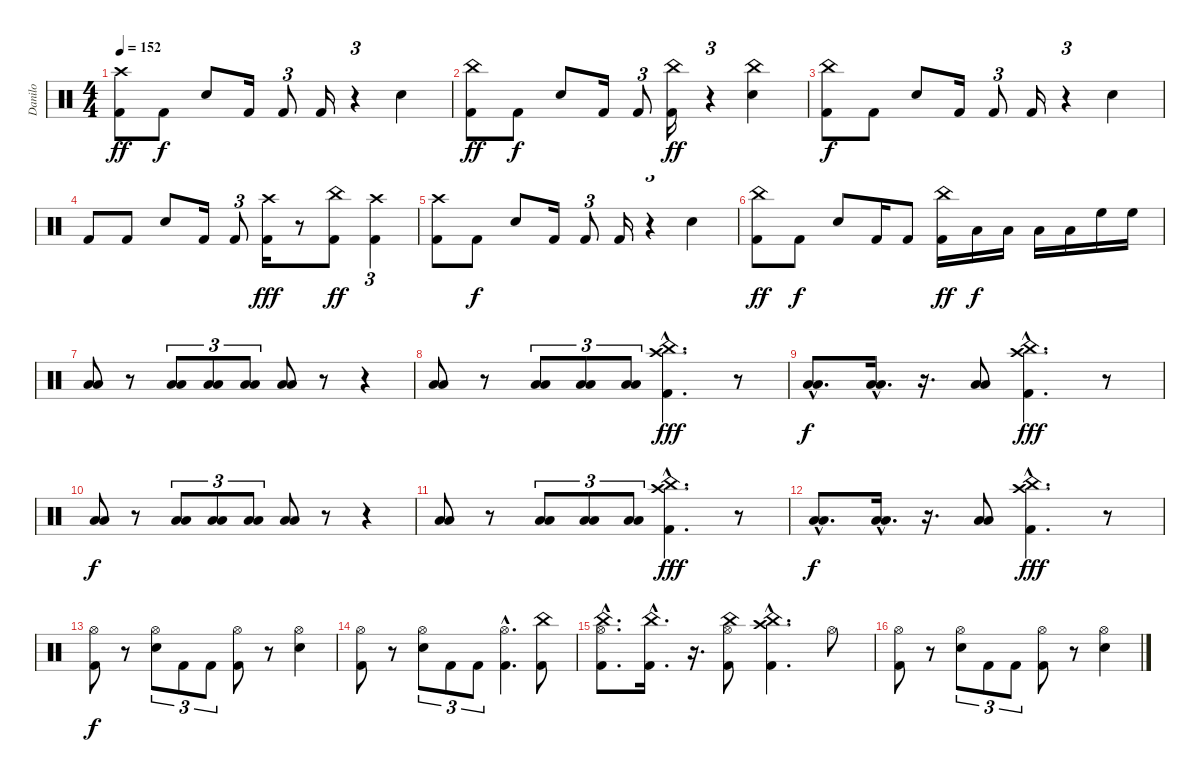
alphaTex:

\track ("Danilo" "Danilo") {instrument percussion}
\staff {score}
\articulation defaults
\ts (4 4)
\tempo 152
\clef neutral
\ks c
("Crash high (hit)" "Kick (hit) 2").8{dy ff} "Kick (hit) 2".8{dy f} "Snare (hit) 2".8 "Kick (hit) 2".16 "Kick (hit) 2".8{tu (3 2)} "Kick (hit) 2".16 r.4{tu (3 2)} "Snare (hit) 2".4 |
("China (hit)" "Kick (hit) 2").8{dy ff} "Kick (hit) 2".8{dy f} "Snare (hit) 2".8 "Kick (hit) 2".16 "Kick (hit) 2".8{tu (3 2)} ("China (hit)" "Kick (hit) 2").16{dy ff} r.4{tu (3 2)} ("Snare (hit) 2" "China (hit)").4 |
("China (hit)" "Kick (hit) 2").8{dy f} "Kick (hit) 2".8 "Snare (hit) 2".8 "Kick (hit) 2".16 "Kick (hit) 2".8{tu (3 2)} "Kick (hit) 2".16 r.4{tu (3 2)} "Snare (hit) 2".4 |
"Kick (hit) 2".8 "Kick (hit) 2".8 "Snare (hit) 2".8 "Kick (hit) 2".16 "Kick (hit) 2".8{tu (3 2)} ("Crash high (hit)" "Kick (hit) 2").16{dy fff} r.8 ("China (hit)" "Kick (hit) 2").8{dy ff} ("Crash high (hit)" "Kick (hit) 2").4{tu (3 2)} |
("Crash high (hit)" "Kick (hit) 2").8 "Kick (hit) 2".8{dy f} "Snare (hit) 2".8 "Kick (hit) 2".16 "Kick (hit) 2".8{tu (3 2)} "Kick (hit) 2".16 r.4{tu (3 2)} "Snare (hit) 2".4 |
("China (hit)" "Kick (hit) 2").8{dy ff} "Kick (hit) 2".8{dy f} "Snare (hit) 2".8 "Kick (hit) 2".16 "Kick (hit) 2".8 ("China (hit)" "Kick (hit) 2").16{dy ff} "Low Tom (hit)".16{dy f} "Low Tom (hit)".16 "Low Tom (hit)".16 "Low Tom (hit)".16 "High Floor Tom (hit)".16 "High Floor Tom (hit)".16 |
("Low Tom (hit)" "Low Floor Tom (hit)").8 r.8 ("Low Tom (hit)" "Low Floor Tom (hit)").8{tu (3 2)} ("Low Tom (hit)" "Low Floor Tom (hit)").8{tu (3 2)} ("Low Tom (hit)" "Low Floor Tom (hit)").8{tu (3 2)} ("Low Tom (hit)" "Low Floor Tom (hit)").8 r.8 r.4 |
("Low Tom (hit)" "Low Floor Tom (hit)").8 r.8 ("Low Tom (hit)" "Low Floor Tom (hit)").8{tu (3 2)} ("Low Tom (hit)" "Low Floor Tom (hit)").8{tu (3 2)} ("Low Tom (hit)" "Low Floor Tom (hit)").8{tu (3 2)} ("Crash high (hit)"{hac} "China (hit)"{hac} "Kick (hit) 2"{hac}).4{d dy fff} r.8 |
("Low Tom (hit)"{hac} "Low Floor Tom (hit)"{hac}).8{d dy f} ("Low Tom (hit)"{hac} "Low Floor Tom (hit)"{hac}).16{d} r.16{d} ("Low Tom (hit)" "Low Floor Tom (hit)").8 ("China (hit)"{hac} "Crash high (hit)"{hac} "Kick (hit) 2"{hac}).4{d dy fff} r.8 |
("Low Tom (hit)" "Low Floor Tom (hit)").8{dy f} r.8 ("Low Tom (hit)" "Low Floor Tom (hit)").8{tu (3 2)} ("Low Tom (hit)" "Low Floor Tom (hit)").8{tu (3 2)} ("Low Tom (hit)" "Low Floor Tom (hit)").8{tu (3 2)} ("Low Tom (hit)" "Low Floor Tom (hit)").8 r.8 r.4 |
("Low Tom (hit)" "Low Floor Tom (hit)").8 r.8 ("Low Tom (hit)" "Low Floor Tom (hit)").8{tu (3 2)} ("Low Tom (hit)" "Low Floor Tom (hit)").8{tu (3 2)} ("Low Tom (hit)" "Low Floor Tom (hit)").8{tu (3 2)} ("China (hit)"{hac} "Crash high (hit)"{hac} "Kick (hit) 2"{hac}).4{d dy fff} r.8 |
("Low Tom (hit)"{hac} "Low Floor Tom (hit)"{hac}).8{d dy f} ("Low Tom (hit)"{hac} "Low Floor Tom (hit)"{hac}).16{d} r.16{d} ("Low Tom (hit)" "Low Floor Tom (hit)").8 ("China (hit)"{hac} "Crash high (hit)"{hac} "Kick (hit) 2"{hac}).4{d dy fff} r.8 |
("Kick (hit) 2" "Hi-Hat (open)").8{dy f} r.8 ("Snare (hit) 2" "Hi-Hat (open)").8{tu (3 2)} "Kick (hit) 2".8{tu (3 2)} "Kick (hit) 2".8{tu (3 2)} ("Kick (hit) 2" "Hi-Hat (open)").8 r.8 ("Snare (hit) 2" "Hi-Hat (open)").4 |
("Kick (hit) 2" "Hi-Hat (open)").8 r.8 ("Snare (hit) 2" "Hi-Hat (open)").8{tu (3 2)} "Kick (hit) 2".8{tu (3 2)} "Kick (hit) 2".8{tu (3 2)} ("Kick (hit) 2"{hac} "Hi-Hat (open)"{hac}).4{d} ("China (hit)" "Kick (hit) 2").8 |
("Hi-Hat (open)"{hac} "China (hit)"{hac} "Kick (hit) 2"{hac}).8{d} ("China (hit)"{hac} "Kick (hit) 2"{hac}).16{d} r.16{d} ("Hi-Hat (open)" "China (hit)" "Kick (hit) 2").8 ("China (hit)"{hac} "Crash high (hit)"{hac} "Kick (hit) 2"{hac}).4{d} "Hi-Hat (open)".8 |
("Kick (hit) 2" "Hi-Hat (open)").8 r.8 ("Snare (hit) 2" "Hi-Hat (open)").8{tu (3 2)} "Kick (hit) 2".8{tu (3 2)} "Kick (hit) 2".8{tu (3 2)} ("Kick (hit) 2" "Hi-Hat (open)").8 r.8 ("Snare (hit) 2" "Hi-Hat (open)").4
